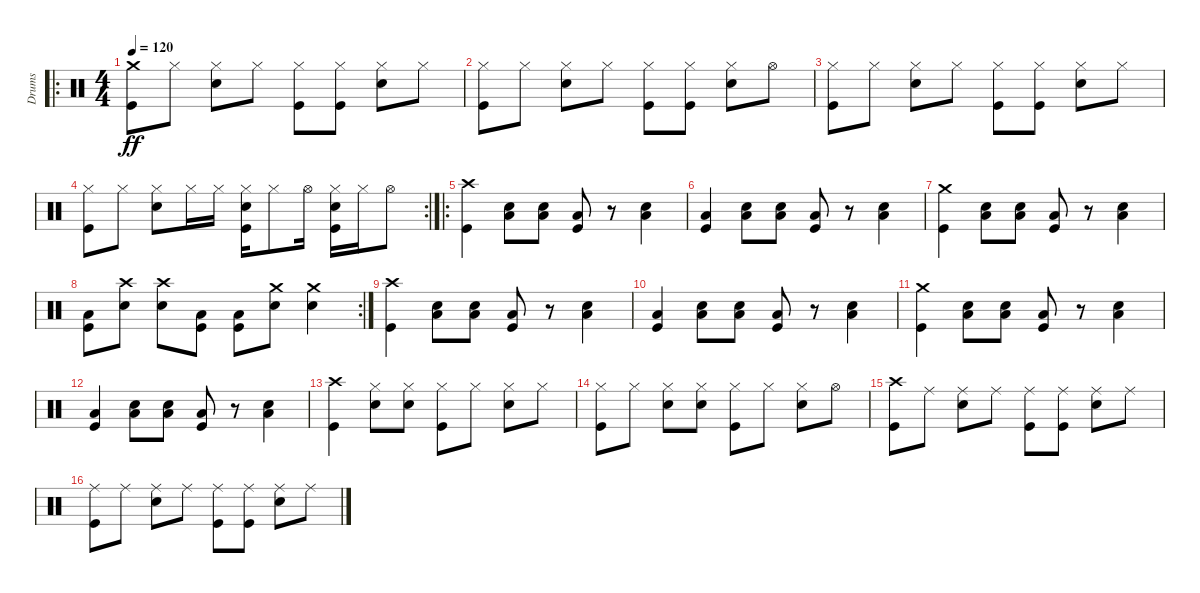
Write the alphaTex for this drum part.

\track ("Drums" "Drums") {instrument percussion}
\staff {score}
\articulation defaults
\ro
\ts (4 4)
\tempo 120
\clef neutral
\ks c
("Crash medium (hit)" "Kick (hit)").8{dy ff} "Hi-Hat (closed)".8 ("Hi-Hat (closed)" "Snare (hit) 2").8 "Hi-Hat (closed)".8 ("Hi-Hat (closed)" "Kick (hit)").8 ("Hi-Hat (closed)" "Kick (hit)").8 ("Hi-Hat (closed)" "Snare (hit) 2").8 "Hi-Hat (closed)".8 |
("Hi-Hat (closed)" "Kick (hit)").8 "Hi-Hat (closed)".8 ("Hi-Hat (closed)" "Snare (hit) 2").8 "Hi-Hat (closed)".8 ("Hi-Hat (closed)" "Kick (hit)").8 ("Hi-Hat (closed)" "Kick (hit)").8 ("Hi-Hat (closed)" "Snare (hit) 2").8 "Hi-Hat (open)".8 |
("Hi-Hat (closed)" "Kick (hit)").8 "Hi-Hat (closed)".8 ("Hi-Hat (closed)" "Snare (hit) 2").8 "Hi-Hat (closed)".8 ("Hi-Hat (closed)" "Kick (hit)").8 ("Hi-Hat (closed)" "Kick (hit)").8 ("Hi-Hat (closed)" "Snare (hit) 2").8 "Hi-Hat (closed)".8 |
\rc 2
("Hi-Hat (closed)" "Kick (hit)").8 "Hi-Hat (closed)".8 ("Hi-Hat (closed)" "Snare (hit) 2").8 "Hi-Hat (closed)".16 "Hi-Hat (closed)".16 ("Hi-Hat (closed)" "Snare (hit) 2" "Kick (hit)").16 "Hi-Hat (closed)".8 "Hi-Hat (open)".16 ("Hi-Hat (closed)" "Snare (hit) 2" "Kick (hit)").16 "Hi-Hat (closed)".16 "Hi-Hat (open)".8 |
\ro
("Crash high (hit)" "Kick (hit)").4 ("Low Floor Tom (hit)" "Snare (hit) 2").8 ("Low Floor Tom (hit)" "Snare (hit) 2").8 ("Low Floor Tom (hit)" "Kick (hit)").8 r.8 ("Low Floor Tom (hit)" "Snare (hit) 2").4 |
("Low Floor Tom (hit)" "Kick (hit)").4 ("Low Floor Tom (hit)" "Snare (hit) 2").8 ("Low Floor Tom (hit)" "Snare (hit) 2").8 ("Low Floor Tom (hit)" "Kick (hit)").8 r.8 ("Low Floor Tom (hit)" "Snare (hit) 2").4 |
("Crash medium (hit)" "Kick (hit)").4 ("Low Floor Tom (hit)" "Snare (hit) 2").8 ("Low Floor Tom (hit)" "Snare (hit) 2").8 ("Low Floor Tom (hit)" "Kick (hit)").8 r.8 ("Low Floor Tom (hit)" "Snare (hit) 2").4 |
\rc 2
("Low Floor Tom (hit)" "Kick (hit)").8 ("Crash high (hit)" "Snare (hit) 2").8 ("Crash high (hit)" "Snare (hit) 2").8 ("Low Floor Tom (hit)" "Kick (hit)").8 ("Low Floor Tom (hit)" "Kick (hit)").8 ("Crash medium (hit)" "Snare (hit) 2").8 ("Crash medium (hit)" "Snare (hit) 2").4 |
("Crash high (hit)" "Kick (hit)").4 ("Low Floor Tom (hit)" "Snare (hit) 2").8 ("Low Floor Tom (hit)" "Snare (hit) 2").8 ("Low Floor Tom (hit)" "Kick (hit)").8 r.8 ("Low Floor Tom (hit)" "Snare (hit) 2").4 |
("Low Floor Tom (hit)" "Kick (hit)").4 ("Low Floor Tom (hit)" "Snare (hit) 2").8 ("Low Floor Tom (hit)" "Snare (hit) 2").8 ("Low Floor Tom (hit)" "Kick (hit)").8 r.8 ("Low Floor Tom (hit)" "Snare (hit) 2").4 |
("Crash medium (hit)" "Kick (hit)").4 ("Low Floor Tom (hit)" "Snare (hit) 2").8 ("Low Floor Tom (hit)" "Snare (hit) 2").8 ("Low Floor Tom (hit)" "Kick (hit)").8 r.8 ("Low Floor Tom (hit)" "Snare (hit) 2").4 |
("Low Floor Tom (hit)" "Kick (hit)").4 ("Low Floor Tom (hit)" "Snare (hit) 2").8 ("Low Floor Tom (hit)" "Snare (hit) 2").8 ("Low Floor Tom (hit)" "Kick (hit)").8 r.8 ("Low Floor Tom (hit)" "Snare (hit) 2").4 |
("Crash high (hit)" "Kick (hit)").4 ("Hi-Hat (closed)" "Snare (hit) 2").8 ("Hi-Hat (closed)" "Snare (hit) 2").8 ("Hi-Hat (closed)" "Kick (hit)").8 "Hi-Hat (closed)".8 ("Hi-Hat (closed)" "Snare (hit) 2").8 "Hi-Hat (closed)".8 |
("Hi-Hat (closed)" "Kick (hit)").8 "Hi-Hat (closed)".8 ("Hi-Hat (closed)" "Snare (hit) 2").8 ("Hi-Hat (closed)" "Snare (hit) 2").8 ("Hi-Hat (closed)" "Kick (hit)").8 "Hi-Hat (closed)".8 ("Hi-Hat (closed)" "Snare (hit) 2").8 "Hi-Hat (open)".8 |
("Crash high (hit)" "Kick (hit)").8 "Ride (middle)".8 ("Ride (middle)" "Snare (hit) 2").8 "Ride (middle)".8 ("Ride (middle)" "Kick (hit)").8 ("Ride (middle)" "Kick (hit)").8 ("Ride (middle)" "Snare (hit) 2").8 "Ride (middle)".8 |
("Ride (middle)" "Kick (hit)").8 "Ride (middle)".8 ("Ride (middle)" "Snare (hit) 2").8 "Ride (middle)".8 ("Ride (middle)" "Kick (hit)").8 ("Ride (middle)" "Kick (hit)").8 ("Ride (middle)" "Snare (hit) 2").8 "Ride (middle)".8
